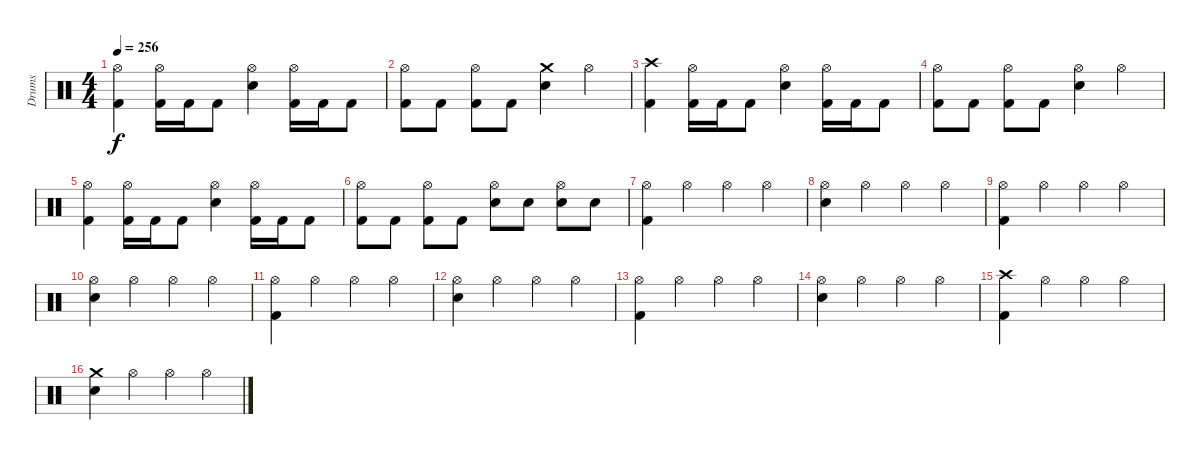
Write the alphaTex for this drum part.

\track ("Drums" "Drums") {instrument percussion}
\staff {score}
\articulation defaults
\ts (4 4)
\tempo 256
\clef neutral
\ks c
("Hi-Hat (open)" "Kick (hit) 2").4{dy f} ("Hi-Hat (open)" "Kick (hit) 2").16 "Kick (hit) 2".16 "Kick (hit) 2".8 ("Hi-Hat (open)" "Electric Snare (hit)").4 ("Hi-Hat (open)" "Kick (hit) 2").16 "Kick (hit) 2".16 "Kick (hit) 2".8 |
("Hi-Hat (open)" "Kick (hit) 2").8 "Kick (hit) 2".8 ("Hi-Hat (open)" "Kick (hit) 2").8 "Kick (hit) 2".8 ("Crash medium (hit)" "Electric Snare (hit)").4 "Hi-Hat (open)".4 |
("Crash high (hit)" "Kick (hit) 2").4 ("Hi-Hat (open)" "Kick (hit) 2").16 "Kick (hit) 2".16 "Kick (hit) 2".8 ("Hi-Hat (open)" "Electric Snare (hit)").4 ("Hi-Hat (open)" "Kick (hit) 2").16 "Kick (hit) 2".16 "Kick (hit) 2".8 |
("Hi-Hat (open)" "Kick (hit) 2").8 "Kick (hit) 2".8 ("Hi-Hat (open)" "Kick (hit) 2").8 "Kick (hit) 2".8 ("Hi-Hat (open)" "Electric Snare (hit)").4 "Hi-Hat (open)".4 |
("Hi-Hat (open)" "Kick (hit) 2").4 ("Hi-Hat (open)" "Kick (hit) 2").16 "Kick (hit) 2".16 "Kick (hit) 2".8 ("Hi-Hat (open)" "Electric Snare (hit)").4 ("Hi-Hat (open)" "Kick (hit) 2").16 "Kick (hit) 2".16 "Kick (hit) 2".8 |
("Hi-Hat (open)" "Kick (hit) 2").8 "Kick (hit) 2".8 ("Hi-Hat (open)" "Kick (hit) 2").8 "Kick (hit) 2".8 ("Hi-Hat (open)" "Electric Snare (hit)").8 "Electric Snare (hit)".8 ("Hi-Hat (open)" "Electric Snare (hit)").8 "Electric Snare (hit)".8 |
("Hi-Hat (open)" "Kick (hit) 2").4 "Hi-Hat (open)".4 "Hi-Hat (open)".4 "Hi-Hat (open)".4 |
("Hi-Hat (open)" "Electric Snare (hit)").4 "Hi-Hat (open)".4 "Hi-Hat (open)".4 "Hi-Hat (open)".4 |
("Hi-Hat (open)" "Kick (hit) 2").4 "Hi-Hat (open)".4 "Hi-Hat (open)".4 "Hi-Hat (open)".4 |
("Hi-Hat (open)" "Electric Snare (hit)").4 "Hi-Hat (open)".4 "Hi-Hat (open)".4 "Hi-Hat (open)".4 |
("Hi-Hat (open)" "Kick (hit) 2").4 "Hi-Hat (open)".4 "Hi-Hat (open)".4 "Hi-Hat (open)".4 |
("Hi-Hat (open)" "Electric Snare (hit)").4 "Hi-Hat (open)".4 "Hi-Hat (open)".4 "Hi-Hat (open)".4 |
("Hi-Hat (open)" "Kick (hit) 2").4 "Hi-Hat (open)".4 "Hi-Hat (open)".4 "Hi-Hat (open)".4 |
("Hi-Hat (open)" "Electric Snare (hit)").4 "Hi-Hat (open)".4 "Hi-Hat (open)".4 "Hi-Hat (open)".4 |
("Crash high (hit)" "Kick (hit) 2").4 "Hi-Hat (open)".4 "Hi-Hat (open)".4 "Hi-Hat (open)".4 |
("Crash medium (hit)" "Electric Snare (hit)").4 "Hi-Hat (open)".4 "Hi-Hat (open)".4 "Hi-Hat (open)".4
